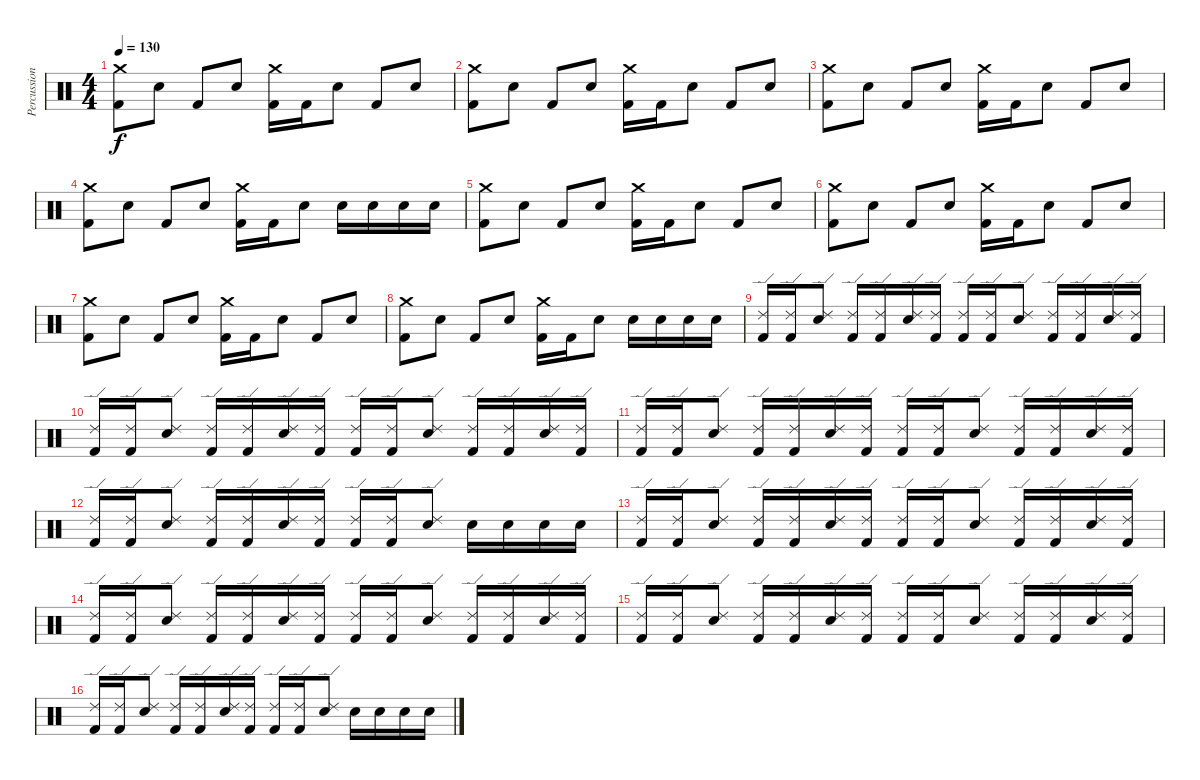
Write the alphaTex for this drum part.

\track ("Percussion" "Percussion") {instrument percussion}
\staff {score}
\articulation defaults
\ts (4 4)
\tempo 130
\clef neutral
\ks c
("Kick (hit) 2" "Crash medium (hit)").8{dy f} "Snare (hit) 2".8 "Kick (hit) 2".8 "Snare (hit) 2".8 ("Kick (hit) 2" "Crash medium (hit)").16 "Kick (hit) 2".16 "Snare (hit) 2".8 "Kick (hit) 2".8 "Snare (hit) 2".8 |
("Kick (hit) 2" "Crash medium (hit)").8 "Snare (hit) 2".8 "Kick (hit) 2".8 "Snare (hit) 2".8 ("Kick (hit) 2" "Crash medium (hit)").16 "Kick (hit) 2".16 "Snare (hit) 2".8 "Kick (hit) 2".8 "Snare (hit) 2".8 |
("Kick (hit) 2" "Crash medium (hit)").8 "Snare (hit) 2".8 "Kick (hit) 2".8 "Snare (hit) 2".8 ("Kick (hit) 2" "Crash medium (hit)").16 "Kick (hit) 2".16 "Snare (hit) 2".8 "Kick (hit) 2".8 "Snare (hit) 2".8 |
("Kick (hit) 2" "Crash medium (hit)").8 "Snare (hit) 2".8 "Kick (hit) 2".8 "Snare (hit) 2".8 ("Kick (hit) 2" "Crash medium (hit)").16 "Kick (hit) 2".16 "Snare (hit) 2".8 "Snare (hit) 2".16 "Snare (hit) 2".16 "Snare (hit) 2".16 "Snare (hit) 2".16 |
("Kick (hit) 2" "Crash medium (hit)").8 "Snare (hit) 2".8 "Kick (hit) 2".8 "Snare (hit) 2".8 ("Kick (hit) 2" "Crash medium (hit)").16 "Kick (hit) 2".16 "Snare (hit) 2".8 "Kick (hit) 2".8 "Snare (hit) 2".8 |
("Kick (hit) 2" "Crash medium (hit)").8 "Snare (hit) 2".8 "Kick (hit) 2".8 "Snare (hit) 2".8 ("Kick (hit) 2" "Crash medium (hit)").16 "Kick (hit) 2".16 "Snare (hit) 2".8 "Kick (hit) 2".8 "Snare (hit) 2".8 |
("Kick (hit) 2" "Crash medium (hit)").8 "Snare (hit) 2".8 "Kick (hit) 2".8 "Snare (hit) 2".8 ("Kick (hit) 2" "Crash medium (hit)").16 "Kick (hit) 2".16 "Snare (hit) 2".8 "Kick (hit) 2".8 "Snare (hit) 2".8 |
("Kick (hit) 2" "Crash medium (hit)").8 "Snare (hit) 2".8 "Kick (hit) 2".8 "Snare (hit) 2".8 ("Kick (hit) 2" "Crash medium (hit)").16 "Kick (hit) 2".16 "Snare (hit) 2".8 "Snare (hit) 2".16 "Snare (hit) 2".16 "Snare (hit) 2".16 "Snare (hit) 2".16 |
("Kick (hit) 2" "Ride (edge) 2").16 ("Kick (hit) 2" "Ride (edge) 2").16 ("Snare (hit) 2" "Ride (edge) 2").8 ("Kick (hit) 2" "Ride (edge) 2").16 ("Kick (hit) 2" "Ride (edge) 2").16 ("Snare (hit) 2" "Ride (edge) 2").16 ("Kick (hit) 2" "Ride (edge) 2").16 ("Kick (hit) 2" "Ride (edge) 2").16 ("Kick (hit) 2" "Ride (edge) 2").16 ("Snare (hit) 2" "Ride (edge) 2").8 ("Kick (hit) 2" "Ride (edge) 2").16 ("Kick (hit) 2" "Ride (edge) 2").16 ("Snare (hit) 2" "Ride (edge) 2").16 ("Kick (hit) 2" "Ride (edge) 2").16 |
("Kick (hit) 2" "Ride (edge) 2").16 ("Kick (hit) 2" "Ride (edge) 2").16 ("Snare (hit) 2" "Ride (edge) 2").8 ("Kick (hit) 2" "Ride (edge) 2").16 ("Kick (hit) 2" "Ride (edge) 2").16 ("Snare (hit) 2" "Ride (edge) 2").16 ("Kick (hit) 2" "Ride (edge) 2").16 ("Kick (hit) 2" "Ride (edge) 2").16 ("Kick (hit) 2" "Ride (edge) 2").16 ("Snare (hit) 2" "Ride (edge) 2").8 ("Kick (hit) 2" "Ride (edge) 2").16 ("Kick (hit) 2" "Ride (edge) 2").16 ("Snare (hit) 2" "Ride (edge) 2").16 ("Kick (hit) 2" "Ride (edge) 2").16 |
("Kick (hit) 2" "Ride (edge) 2").16 ("Kick (hit) 2" "Ride (edge) 2").16 ("Snare (hit) 2" "Ride (edge) 2").8 ("Kick (hit) 2" "Ride (edge) 2").16 ("Kick (hit) 2" "Ride (edge) 2").16 ("Snare (hit) 2" "Ride (edge) 2").16 ("Kick (hit) 2" "Ride (edge) 2").16 ("Kick (hit) 2" "Ride (edge) 2").16 ("Kick (hit) 2" "Ride (edge) 2").16 ("Snare (hit) 2" "Ride (edge) 2").8 ("Kick (hit) 2" "Ride (edge) 2").16 ("Kick (hit) 2" "Ride (edge) 2").16 ("Snare (hit) 2" "Ride (edge) 2").16 ("Kick (hit) 2" "Ride (edge) 2").16 |
("Kick (hit) 2" "Ride (edge) 2").16 ("Kick (hit) 2" "Ride (edge) 2").16 ("Snare (hit) 2" "Ride (edge) 2").8 ("Kick (hit) 2" "Ride (edge) 2").16 ("Kick (hit) 2" "Ride (edge) 2").16 ("Snare (hit) 2" "Ride (edge) 2").16 ("Kick (hit) 2" "Ride (edge) 2").16 ("Kick (hit) 2" "Ride (edge) 2").16 ("Kick (hit) 2" "Ride (edge) 2").16 ("Snare (hit) 2" "Ride (edge) 2").8 "Snare (hit) 2".16 "Snare (hit) 2".16 "Snare (hit) 2".16 "Snare (hit) 2".16 |
("Kick (hit) 2" "Ride (edge) 2").16 ("Kick (hit) 2" "Ride (edge) 2").16 ("Snare (hit) 2" "Ride (edge) 2").8 ("Kick (hit) 2" "Ride (edge) 2").16 ("Kick (hit) 2" "Ride (edge) 2").16 ("Snare (hit) 2" "Ride (edge) 2").16 ("Kick (hit) 2" "Ride (edge) 2").16 ("Kick (hit) 2" "Ride (edge) 2").16 ("Kick (hit) 2" "Ride (edge) 2").16 ("Snare (hit) 2" "Ride (edge) 2").8 ("Kick (hit) 2" "Ride (edge) 2").16 ("Kick (hit) 2" "Ride (edge) 2").16 ("Snare (hit) 2" "Ride (edge) 2").16 ("Kick (hit) 2" "Ride (edge) 2").16 |
("Kick (hit) 2" "Ride (edge) 2").16 ("Kick (hit) 2" "Ride (edge) 2").16 ("Snare (hit) 2" "Ride (edge) 2").8 ("Kick (hit) 2" "Ride (edge) 2").16 ("Kick (hit) 2" "Ride (edge) 2").16 ("Snare (hit) 2" "Ride (edge) 2").16 ("Kick (hit) 2" "Ride (edge) 2").16 ("Kick (hit) 2" "Ride (edge) 2").16 ("Kick (hit) 2" "Ride (edge) 2").16 ("Snare (hit) 2" "Ride (edge) 2").8 ("Kick (hit) 2" "Ride (edge) 2").16 ("Kick (hit) 2" "Ride (edge) 2").16 ("Snare (hit) 2" "Ride (edge) 2").16 ("Kick (hit) 2" "Ride (edge) 2").16 |
("Kick (hit) 2" "Ride (edge) 2").16 ("Kick (hit) 2" "Ride (edge) 2").16 ("Snare (hit) 2" "Ride (edge) 2").8 ("Kick (hit) 2" "Ride (edge) 2").16 ("Kick (hit) 2" "Ride (edge) 2").16 ("Snare (hit) 2" "Ride (edge) 2").16 ("Kick (hit) 2" "Ride (edge) 2").16 ("Kick (hit) 2" "Ride (edge) 2").16 ("Kick (hit) 2" "Ride (edge) 2").16 ("Snare (hit) 2" "Ride (edge) 2").8 ("Kick (hit) 2" "Ride (edge) 2").16 ("Kick (hit) 2" "Ride (edge) 2").16 ("Snare (hit) 2" "Ride (edge) 2").16 ("Kick (hit) 2" "Ride (edge) 2").16 |
("Kick (hit) 2" "Ride (edge) 2").16 ("Kick (hit) 2" "Ride (edge) 2").16 ("Snare (hit) 2" "Ride (edge) 2").8 ("Kick (hit) 2" "Ride (edge) 2").16 ("Kick (hit) 2" "Ride (edge) 2").16 ("Snare (hit) 2" "Ride (edge) 2").16 ("Kick (hit) 2" "Ride (edge) 2").16 ("Kick (hit) 2" "Ride (edge) 2").16 ("Kick (hit) 2" "Ride (edge) 2").16 ("Snare (hit) 2" "Ride (edge) 2").8 "Snare (hit) 2".16 "Snare (hit) 2".16 "Snare (hit) 2".16 "Snare (hit) 2".16
